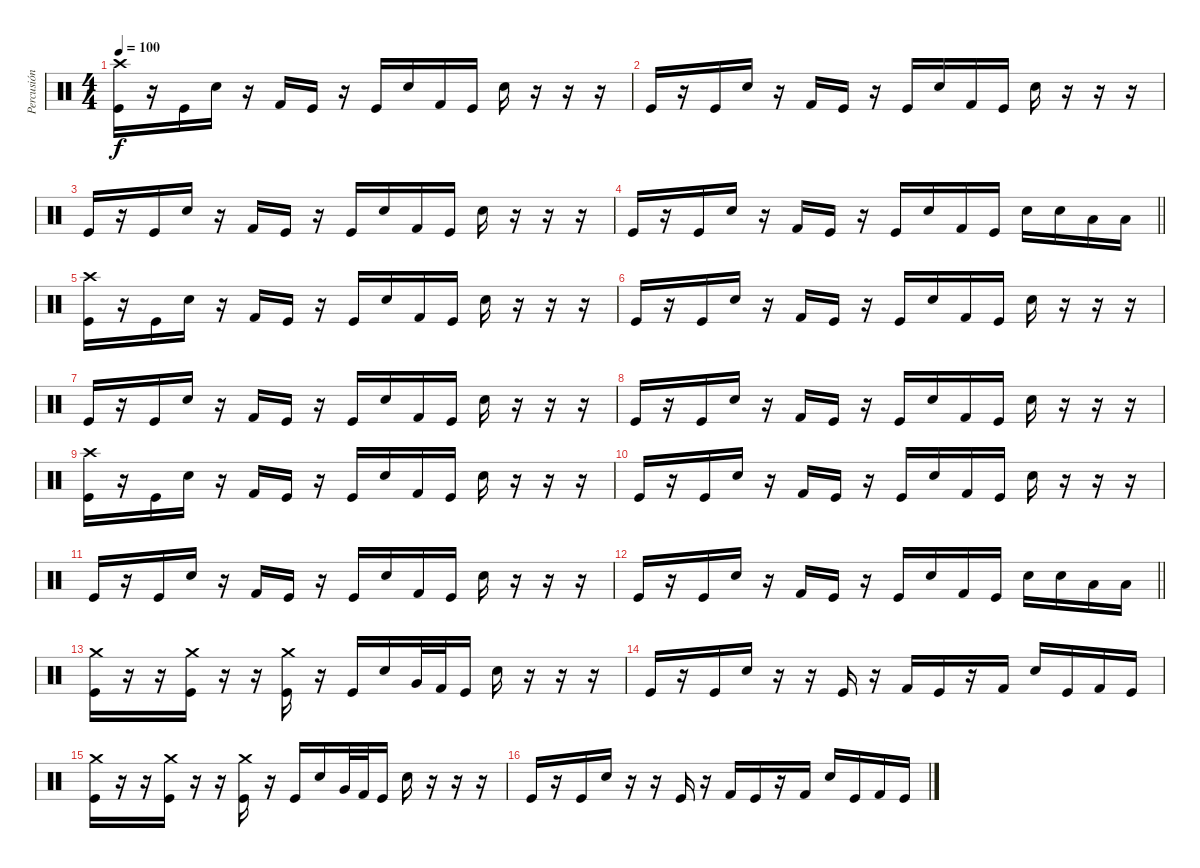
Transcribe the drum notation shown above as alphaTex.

\track ("Percusión" "Percusión") {instrument percussion}
\staff {score}
\articulation defaults
\ts (4 4)
\tempo 100
\clef neutral
\ks c
("Crash high (hit)" "Kick (hit)").16{dy f} r.16 "Kick (hit)".16 "Electric Snare (hit)".16 r.16 "Kick (hit) 2".16 "Kick (hit)".16 r.16 "Kick (hit)".16 "Electric Snare (hit)".16 "Kick (hit) 2".16 "Kick (hit)".16 "Electric Snare (hit)".16 r.16 r.16 r.16 |
"Kick (hit)".16 r.16 "Kick (hit)".16 "Electric Snare (hit)".16 r.16 "Kick (hit) 2".16 "Kick (hit)".16 r.16 "Kick (hit)".16 "Electric Snare (hit)".16 "Kick (hit) 2".16 "Kick (hit)".16 "Electric Snare (hit)".16 r.16 r.16 r.16 |
"Kick (hit)".16 r.16 "Kick (hit)".16 "Electric Snare (hit)".16 r.16 "Kick (hit) 2".16 "Kick (hit)".16 r.16 "Kick (hit)".16 "Electric Snare (hit)".16 "Kick (hit) 2".16 "Kick (hit)".16 "Electric Snare (hit)".16 r.16 r.16 r.16 |
\barLineRight lightlight "Kick (hit)".16
r.16 "Kick (hit)".16 "Electric Snare (hit)".16 r.16 "Kick (hit) 2".16 "Kick (hit)".16 r.16 "Kick (hit)".16 "Electric Snare (hit)".16 "Kick (hit) 2".16 "Kick (hit)".16 "Electric Snare (hit)".16 "Electric Snare (hit)".16 "Low Tom (hit)".16 "Low Tom (hit)".16 |
("Crash high (hit)" "Kick (hit)").16 r.16 "Kick (hit)".16 "Electric Snare (hit)".16 r.16 "Kick (hit) 2".16 "Kick (hit)".16 r.16 "Kick (hit)".16 "Electric Snare (hit)".16 "Kick (hit) 2".16 "Kick (hit)".16 "Electric Snare (hit)".16 r.16 r.16 r.16 |
"Kick (hit)".16 r.16 "Kick (hit)".16 "Electric Snare (hit)".16 r.16 "Kick (hit) 2".16 "Kick (hit)".16 r.16 "Kick (hit)".16 "Electric Snare (hit)".16 "Kick (hit) 2".16 "Kick (hit)".16 "Electric Snare (hit)".16 r.16 r.16 r.16 |
"Kick (hit)".16 r.16 "Kick (hit)".16 "Electric Snare (hit)".16 r.16 "Kick (hit) 2".16 "Kick (hit)".16 r.16 "Kick (hit)".16 "Electric Snare (hit)".16 "Kick (hit) 2".16 "Kick (hit)".16 "Electric Snare (hit)".16 r.16 r.16 r.16 |
"Kick (hit)".16 r.16 "Kick (hit)".16 "Electric Snare (hit)".16 r.16 "Kick (hit) 2".16 "Kick (hit)".16 r.16 "Kick (hit)".16 "Electric Snare (hit)".16 "Kick (hit) 2".16 "Kick (hit)".16 "Electric Snare (hit)".16 r.16 r.16 r.16 |
("Crash high (hit)" "Kick (hit)").16 r.16 "Kick (hit)".16 "Electric Snare (hit)".16 r.16 "Kick (hit) 2".16 "Kick (hit)".16 r.16 "Kick (hit)".16 "Electric Snare (hit)".16 "Kick (hit) 2".16 "Kick (hit)".16 "Electric Snare (hit)".16 r.16 r.16 r.16 |
"Kick (hit)".16 r.16 "Kick (hit)".16 "Electric Snare (hit)".16 r.16 "Kick (hit) 2".16 "Kick (hit)".16 r.16 "Kick (hit)".16 "Electric Snare (hit)".16 "Kick (hit) 2".16 "Kick (hit)".16 "Electric Snare (hit)".16 r.16 r.16 r.16 |
"Kick (hit)".16 r.16 "Kick (hit)".16 "Electric Snare (hit)".16 r.16 "Kick (hit) 2".16 "Kick (hit)".16 r.16 "Kick (hit)".16 "Electric Snare (hit)".16 "Kick (hit) 2".16 "Kick (hit)".16 "Electric Snare (hit)".16 r.16 r.16 r.16 |
\barLineRight lightlight "Kick (hit)".16
r.16 "Kick (hit)".16 "Electric Snare (hit)".16 r.16 "Kick (hit) 2".16 "Kick (hit)".16 r.16 "Kick (hit)".16 "Electric Snare (hit)".16 "Kick (hit) 2".16 "Kick (hit)".16 "Electric Snare (hit)".16 "Electric Snare (hit)".16 "Low Tom (hit)".16 "Low Tom (hit)".16 |
("Crash medium (hit)" "Kick (hit)").16 r.16 r.16 ("Crash medium (hit)" "Kick (hit)").16 r.16 r.16 ("Crash medium (hit)" "Kick (hit)").16 r.16 "Kick (hit)".16 "Electric Snare (hit)".16 "Very Low Tom (hit)".32 "Kick (hit) 2".32 "Kick (hit)".16 "Electric Snare (hit)".16 r.16 r.16 r.16 |
"Kick (hit)".16 r.16 "Kick (hit)".16 "Electric Snare (hit)".16 r.16 r.16 "Kick (hit)".16 r.16 "Kick (hit) 2".16 "Kick (hit)".16 r.16 "Kick (hit) 2".16 "Electric Snare (hit)".16 "Kick (hit)".16 "Kick (hit) 2".16 "Kick (hit)".16 |
("Crash medium (hit)" "Kick (hit)").16 r.16 r.16 ("Crash medium (hit)" "Kick (hit)").16 r.16 r.16 ("Crash medium (hit)" "Kick (hit)").16 r.16 "Kick (hit)".16 "Electric Snare (hit)".16 "Very Low Tom (hit)".32 "Kick (hit) 2".32 "Kick (hit)".16 "Electric Snare (hit)".16 r.16 r.16 r.16 |
"Kick (hit)".16 r.16 "Kick (hit)".16 "Electric Snare (hit)".16 r.16 r.16 "Kick (hit)".16 r.16 "Kick (hit) 2".16 "Kick (hit)".16 r.16 "Kick (hit) 2".16 "Electric Snare (hit)".16 "Kick (hit)".16 "Kick (hit) 2".16 "Kick (hit)".16
